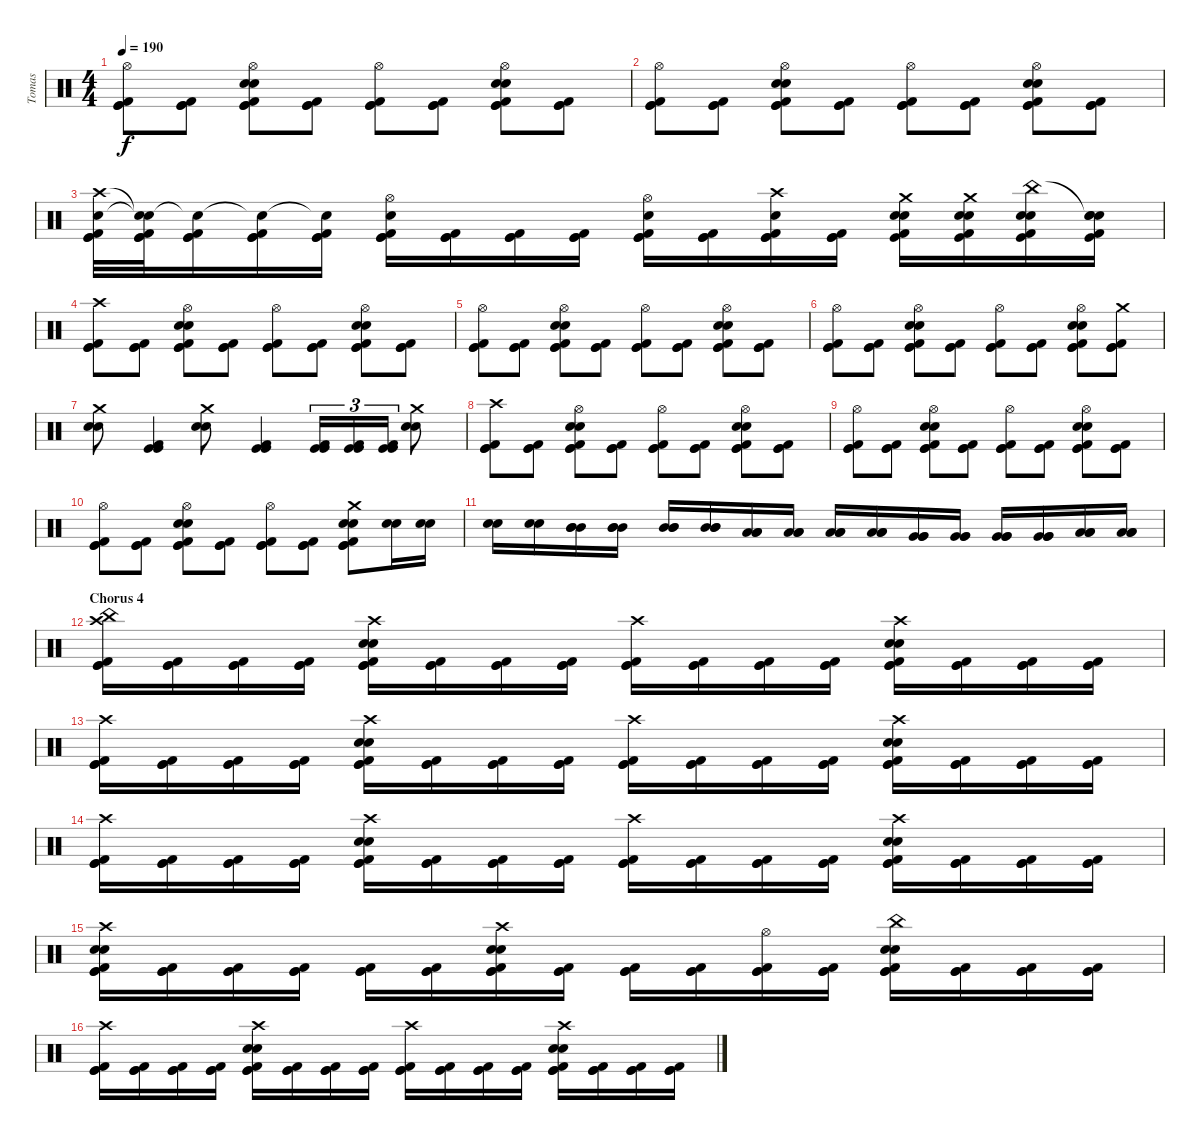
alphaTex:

\track ("Tomas" "Tomas") {instrument percussion}
\staff {score}
\articulation defaults
\ts (4 4)
\tempo 190
\clef neutral
\ks c
("Hi-Hat (open)" "Kick (hit)" "Kick (hit)" "Kick (hit) 2").8{dy f} ("Kick (hit)" "Kick (hit)" "Kick (hit) 2").8 ("Hi-Hat (open)" "Electric Snare (hit)" "Electric Snare (hit)" "Kick (hit)" "Kick (hit)" "Kick (hit) 2").8 ("Kick (hit)" "Kick (hit)" "Kick (hit) 2").8 ("Hi-Hat (open)" "Kick (hit)" "Kick (hit)" "Kick (hit) 2").8 ("Kick (hit)" "Kick (hit)" "Kick (hit) 2").8 ("Hi-Hat (open)" "Electric Snare (hit)" "Electric Snare (hit)" "Kick (hit)" "Kick (hit)" "Kick (hit) 2").8 ("Kick (hit)" "Kick (hit)" "Kick (hit) 2").8 |
("Hi-Hat (open)" "Kick (hit)" "Kick (hit)" "Kick (hit) 2").8 ("Kick (hit)" "Kick (hit)" "Kick (hit) 2").8 ("Hi-Hat (open)" "Electric Snare (hit)" "Electric Snare (hit)" "Kick (hit)" "Kick (hit)" "Kick (hit) 2").8 ("Kick (hit)" "Kick (hit)" "Kick (hit) 2").8 ("Hi-Hat (open)" "Kick (hit)" "Kick (hit)" "Kick (hit) 2").8 ("Kick (hit)" "Kick (hit)" "Kick (hit) 2").8 ("Hi-Hat (open)" "Electric Snare (hit)" "Electric Snare (hit)" "Kick (hit)" "Kick (hit)" "Kick (hit) 2").8 ("Kick (hit)" "Kick (hit)" "Kick (hit) 2").8 |
("Crash high (hit)" "Kick (hit)" "Electric Snare (hit)" "Kick (hit)" "Kick (hit) 2").32 ("Snare (hit)"{t} "Kick (hit)" "Snare (hit)"{t} "Kick (hit)" "Kick (hit) 2").32 ("Snare (hit)"{t} "Kick (hit)" "Kick (hit)" "Kick (hit) 2").16 ("Snare (hit)"{t} "Kick (hit)" "Kick (hit)" "Kick (hit) 2").16 ("Snare (hit)"{t} "Kick (hit)" "Kick (hit)" "Kick (hit) 2").16 ("Hi-Hat (open)" "Kick (hit)" "Electric Snare (hit)" "Kick (hit)" "Kick (hit) 2").16 ("Kick (hit)" "Kick (hit)" "Kick (hit) 2").16 ("Kick (hit)" "Kick (hit)" "Kick (hit) 2").16 ("Kick (hit)" "Kick (hit)" "Kick (hit) 2").16 ("Hi-Hat (open)" "Kick (hit)" "Electric Snare (hit)" "Kick (hit)" "Kick (hit) 2").16 ("Kick (hit)" "Kick (hit)" "Kick (hit) 2").16 ("Crash high (hit)" "Kick (hit)" "Electric Snare (hit)" "Kick (hit)" "Kick (hit) 2").16 ("Kick (hit)" "Kick (hit)" "Kick (hit) 2").16 ("Crash medium (hit)" "Kick (hit)" "Electric Snare (hit)" "Electric Snare (hit)" "Kick (hit) 2").16 ("Crash medium (hit)" "Kick (hit)" "Electric Snare (hit)" "Electric Snare (hit)" "Kick (hit) 2").16 ("China (hit)" "Kick (hit)" "Electric Snare (hit)" "Electric Snare (hit)" "Kick (hit) 2").16 ("Snare (hit)"{t} "Kick (hit)" "Electric Snare (hit)" "Electric Snare (hit)" "Kick (hit) 2").16 |
("Crash high (hit)" "Kick (hit)" "Kick (hit)" "Kick (hit) 2").8 ("Kick (hit)" "Kick (hit)" "Kick (hit) 2").8 ("Hi-Hat (open)" "Electric Snare (hit)" "Electric Snare (hit)" "Kick (hit)" "Kick (hit)" "Kick (hit) 2").8 ("Kick (hit)" "Kick (hit)" "Kick (hit) 2").8 ("Hi-Hat (open)" "Kick (hit)" "Kick (hit)" "Kick (hit) 2").8 ("Kick (hit)" "Kick (hit)" "Kick (hit) 2").8 ("Hi-Hat (open)" "Electric Snare (hit)" "Electric Snare (hit)" "Kick (hit)" "Kick (hit)" "Kick (hit) 2").8 ("Kick (hit)" "Kick (hit)" "Kick (hit) 2").8 |
("Hi-Hat (open)" "Kick (hit)" "Kick (hit)" "Kick (hit) 2").8 ("Kick (hit)" "Kick (hit)" "Kick (hit) 2").8 ("Hi-Hat (open)" "Electric Snare (hit)" "Electric Snare (hit)" "Kick (hit)" "Kick (hit)" "Kick (hit) 2").8 ("Kick (hit)" "Kick (hit)" "Kick (hit) 2").8 ("Hi-Hat (open)" "Kick (hit)" "Kick (hit)" "Kick (hit) 2").8 ("Kick (hit)" "Kick (hit)" "Kick (hit) 2").8 ("Hi-Hat (open)" "Electric Snare (hit)" "Electric Snare (hit)" "Kick (hit)" "Kick (hit)" "Kick (hit) 2").8 ("Kick (hit)" "Kick (hit)" "Kick (hit) 2").8 |
("Hi-Hat (open)" "Kick (hit)" "Kick (hit)" "Kick (hit) 2").8 ("Kick (hit)" "Kick (hit)" "Kick (hit) 2").8 ("Hi-Hat (open)" "Electric Snare (hit)" "Electric Snare (hit)" "Kick (hit)" "Kick (hit)" "Kick (hit) 2").8 ("Kick (hit)" "Kick (hit)" "Kick (hit) 2").8 ("Hi-Hat (open)" "Kick (hit)" "Kick (hit)" "Kick (hit) 2").8 ("Kick (hit)" "Kick (hit)" "Kick (hit) 2").8 ("Hi-Hat (open)" "Electric Snare (hit)" "Electric Snare (hit)" "Kick (hit)" "Kick (hit)" "Kick (hit) 2").8 ("Crash medium (hit)" "Kick (hit)" "Kick (hit)" "Kick (hit) 2").8 |
("Crash medium (hit)" "Electric Snare (hit)" "Electric Snare (hit)").8 ("Kick (hit)" "Kick (hit)" "Kick (hit) 2").4 ("Crash medium (hit)" "Electric Snare (hit)" "Electric Snare (hit)").8 ("Kick (hit)" "Kick (hit)" "Kick (hit) 2").4 ("Kick (hit)" "Kick (hit)" "Kick (hit) 2").16{tu (3 2)} ("Kick (hit)" "Kick (hit)" "Kick (hit) 2").16{tu (3 2)} ("Kick (hit)" "Kick (hit)" "Kick (hit) 2").16{tu (3 2)} ("Crash medium (hit)" "Electric Snare (hit)" "Electric Snare (hit)").8 |
("Crash high (hit)" "Kick (hit)" "Kick (hit)" "Kick (hit) 2").8 ("Kick (hit)" "Kick (hit)" "Kick (hit) 2").8 ("Hi-Hat (open)" "Electric Snare (hit)" "Electric Snare (hit)" "Kick (hit)" "Kick (hit)" "Kick (hit) 2").8 ("Kick (hit)" "Kick (hit)" "Kick (hit) 2").8 ("Hi-Hat (open)" "Kick (hit)" "Kick (hit)" "Kick (hit) 2").8 ("Kick (hit)" "Kick (hit)" "Kick (hit) 2").8 ("Hi-Hat (open)" "Electric Snare (hit)" "Electric Snare (hit)" "Kick (hit)" "Kick (hit)" "Kick (hit) 2").8 ("Kick (hit)" "Kick (hit)" "Kick (hit) 2").8 |
("Hi-Hat (open)" "Kick (hit)" "Kick (hit)" "Kick (hit) 2").8 ("Kick (hit)" "Kick (hit)" "Kick (hit) 2").8 ("Hi-Hat (open)" "Electric Snare (hit)" "Electric Snare (hit)" "Kick (hit)" "Kick (hit)" "Kick (hit) 2").8 ("Kick (hit)" "Kick (hit)" "Kick (hit) 2").8 ("Hi-Hat (open)" "Kick (hit)" "Kick (hit)" "Kick (hit) 2").8 ("Kick (hit)" "Kick (hit)" "Kick (hit) 2").8 ("Hi-Hat (open)" "Electric Snare (hit)" "Electric Snare (hit)" "Kick (hit)" "Kick (hit)" "Kick (hit) 2").8 ("Kick (hit)" "Kick (hit)" "Kick (hit) 2").8 |
("Hi-Hat (open)" "Kick (hit)" "Kick (hit)" "Kick (hit) 2").8 ("Kick (hit)" "Kick (hit)" "Kick (hit) 2").8 ("Hi-Hat (open)" "Electric Snare (hit)" "Electric Snare (hit)" "Kick (hit)" "Kick (hit)" "Kick (hit) 2").8 ("Kick (hit)" "Kick (hit)" "Kick (hit) 2").8 ("Hi-Hat (open)" "Kick (hit)" "Kick (hit)" "Kick (hit) 2").8 ("Kick (hit)" "Kick (hit)" "Kick (hit) 2").8 ("Crash medium (hit)" "Electric Snare (hit)" "Electric Snare (hit)" "Kick (hit)" "Kick (hit)" "Kick (hit) 2").8 ("Electric Snare (hit)" "Electric Snare (hit)").16 ("Electric Snare (hit)" "Electric Snare (hit)").16 |
("Electric Snare (hit)" "Electric Snare (hit)").16 ("Electric Snare (hit)" "Electric Snare (hit)").16 ("Mid Tom (hit)" "Mid Tom (hit)" "Mid Tom (hit)").16 ("Mid Tom (hit)" "Mid Tom (hit)" "Mid Tom (hit)").16 ("Mid Tom (hit)" "Mid Tom (hit)" "Mid Tom (hit)").16 ("Mid Tom (hit)" "Mid Tom (hit)" "Mid Tom (hit)").16 ("Low Tom (hit)" "Low Tom (hit)" "Low Tom (hit)").16 ("Low Tom (hit)" "Low Tom (hit)" "Low Tom (hit)").16 ("Low Tom (hit)" "Low Tom (hit)" "Low Tom (hit)").16 ("Low Tom (hit)" "Low Tom (hit)" "Low Tom (hit)").16 ("Very Low Tom (hit)" "Very Low Tom (hit)" "Very Low Tom (hit)").16 ("Very Low Tom (hit)" "Very Low Tom (hit)" "Very Low Tom (hit)").16 ("Very Low Tom (hit)" "Very Low Tom (hit)" "Very Low Tom (hit)").16 ("Very Low Tom (hit)" "Very Low Tom (hit)" "Very Low Tom (hit)").16 ("Low Floor Tom (hit)" "Low Floor Tom (hit)" "Low Floor Tom (hit)").16 ("Low Floor Tom (hit)" "Low Floor Tom (hit)" "Low Floor Tom (hit)").16 |
\section ("" "Chorus 4")
("Crash high (hit)" "China (hit)" "Kick (hit)" "Kick (hit)" "Kick (hit) 2").16 ("Kick (hit)" "Kick (hit)" "Kick (hit) 2").16 ("Kick (hit)" "Kick (hit)" "Kick (hit) 2").16 ("Kick (hit)" "Kick (hit)" "Kick (hit) 2").16 ("Crash high (hit)" "Kick (hit)" "Electric Snare (hit)" "Electric Snare (hit)" "Kick (hit)" "Kick (hit) 2").16 ("Kick (hit)" "Kick (hit)" "Kick (hit) 2").16 ("Kick (hit)" "Kick (hit)" "Kick (hit) 2").16 ("Kick (hit)" "Kick (hit)" "Kick (hit) 2").16 ("Crash high (hit)" "Kick (hit)" "Kick (hit)" "Kick (hit) 2").16 ("Kick (hit)" "Kick (hit)" "Kick (hit) 2").16 ("Kick (hit)" "Kick (hit)" "Kick (hit) 2").16 ("Kick (hit)" "Kick (hit)" "Kick (hit) 2").16 ("Crash high (hit)" "Kick (hit)" "Electric Snare (hit)" "Electric Snare (hit)" "Kick (hit)" "Kick (hit) 2").16 ("Kick (hit)" "Kick (hit)" "Kick (hit) 2").16 ("Kick (hit)" "Kick (hit)" "Kick (hit) 2").16 ("Kick (hit)" "Kick (hit)" "Kick (hit) 2").16 |
("Crash high (hit)" "Kick (hit)" "Kick (hit)" "Kick (hit) 2").16 ("Kick (hit)" "Kick (hit)" "Kick (hit) 2").16 ("Kick (hit)" "Kick (hit)" "Kick (hit) 2").16 ("Kick (hit)" "Kick (hit)" "Kick (hit) 2").16 ("Crash high (hit)" "Kick (hit)" "Electric Snare (hit)" "Electric Snare (hit)" "Kick (hit)" "Kick (hit) 2").16 ("Kick (hit)" "Kick (hit)" "Kick (hit) 2").16 ("Kick (hit)" "Kick (hit)" "Kick (hit) 2").16 ("Kick (hit)" "Kick (hit)" "Kick (hit) 2").16 ("Crash high (hit)" "Kick (hit)" "Kick (hit)" "Kick (hit) 2").16 ("Kick (hit)" "Kick (hit)" "Kick (hit) 2").16 ("Kick (hit)" "Kick (hit)" "Kick (hit) 2").16 ("Kick (hit)" "Kick (hit)" "Kick (hit) 2").16 ("Crash high (hit)" "Kick (hit)" "Electric Snare (hit)" "Electric Snare (hit)" "Kick (hit)" "Kick (hit) 2").16 ("Kick (hit)" "Kick (hit)" "Kick (hit) 2").16 ("Kick (hit)" "Kick (hit)" "Kick (hit) 2").16 ("Kick (hit)" "Kick (hit)" "Kick (hit) 2").16 |
("Crash high (hit)" "Kick (hit)" "Kick (hit)" "Kick (hit) 2").16 ("Kick (hit)" "Kick (hit)" "Kick (hit) 2").16 ("Kick (hit)" "Kick (hit)" "Kick (hit) 2").16 ("Kick (hit)" "Kick (hit)" "Kick (hit) 2").16 ("Crash high (hit)" "Kick (hit)" "Electric Snare (hit)" "Electric Snare (hit)" "Kick (hit)" "Kick (hit) 2").16 ("Kick (hit)" "Kick (hit)" "Kick (hit) 2").16 ("Kick (hit)" "Kick (hit)" "Kick (hit) 2").16 ("Kick (hit)" "Kick (hit)" "Kick (hit) 2").16 ("Crash high (hit)" "Kick (hit)" "Kick (hit)" "Kick (hit) 2").16 ("Kick (hit)" "Kick (hit)" "Kick (hit) 2").16 ("Kick (hit)" "Kick (hit)" "Kick (hit) 2").16 ("Kick (hit)" "Kick (hit)" "Kick (hit) 2").16 ("Crash high (hit)" "Kick (hit)" "Electric Snare (hit)" "Electric Snare (hit)" "Kick (hit)" "Kick (hit) 2").16 ("Kick (hit)" "Kick (hit)" "Kick (hit) 2").16 ("Kick (hit)" "Kick (hit)" "Kick (hit) 2").16 ("Kick (hit)" "Kick (hit)" "Kick (hit) 2").16 |
("Crash high (hit)" "Kick (hit)" "Electric Snare (hit)" "Electric Snare (hit)" "Kick (hit)" "Kick (hit) 2").16 ("Kick (hit)" "Kick (hit)" "Kick (hit) 2").16 ("Kick (hit)" "Kick (hit)" "Kick (hit) 2").16 ("Kick (hit)" "Kick (hit)" "Kick (hit) 2").16 ("Kick (hit)" "Kick (hit)" "Kick (hit) 2").16 ("Kick (hit)" "Kick (hit)" "Kick (hit) 2").16 ("Crash high (hit)" "Kick (hit)" "Electric Snare (hit)" "Electric Snare (hit)" "Kick (hit)" "Kick (hit) 2").16 ("Kick (hit)" "Kick (hit)" "Kick (hit) 2").16 ("Kick (hit)" "Kick (hit)" "Kick (hit) 2").16 ("Kick (hit)" "Kick (hit)" "Kick (hit) 2").16 ("Hi-Hat (open)" "Kick (hit)" "Kick (hit)" "Kick (hit) 2").16 ("Kick (hit)" "Kick (hit)" "Kick (hit) 2").16 ("China (hit)" "Kick (hit)" "Electric Snare (hit)" "Electric Snare (hit)" "Kick (hit)" "Kick (hit) 2").16 ("Kick (hit)" "Kick (hit)" "Kick (hit) 2").16 ("Kick (hit)" "Kick (hit)" "Kick (hit) 2").16 ("Kick (hit)" "Kick (hit)" "Kick (hit) 2").16 |
("Crash high (hit)" "Kick (hit)" "Kick (hit)" "Kick (hit) 2").16 ("Kick (hit)" "Kick (hit)" "Kick (hit) 2").16 ("Kick (hit)" "Kick (hit)" "Kick (hit) 2").16 ("Kick (hit)" "Kick (hit)" "Kick (hit) 2").16 ("Crash high (hit)" "Kick (hit)" "Electric Snare (hit)" "Electric Snare (hit)" "Kick (hit)" "Kick (hit) 2").16 ("Kick (hit)" "Kick (hit)" "Kick (hit) 2").16 ("Kick (hit)" "Kick (hit)" "Kick (hit) 2").16 ("Kick (hit)" "Kick (hit)" "Kick (hit) 2").16 ("Crash high (hit)" "Kick (hit)" "Kick (hit)" "Kick (hit) 2").16 ("Kick (hit)" "Kick (hit)" "Kick (hit) 2").16 ("Kick (hit)" "Kick (hit)" "Kick (hit) 2").16 ("Kick (hit)" "Kick (hit)" "Kick (hit) 2").16 ("Crash high (hit)" "Kick (hit)" "Electric Snare (hit)" "Electric Snare (hit)" "Kick (hit)" "Kick (hit) 2").16 ("Kick (hit)" "Kick (hit)" "Kick (hit) 2").16 ("Kick (hit)" "Kick (hit)" "Kick (hit) 2").16 ("Kick (hit)" "Kick (hit)" "Kick (hit) 2").16
